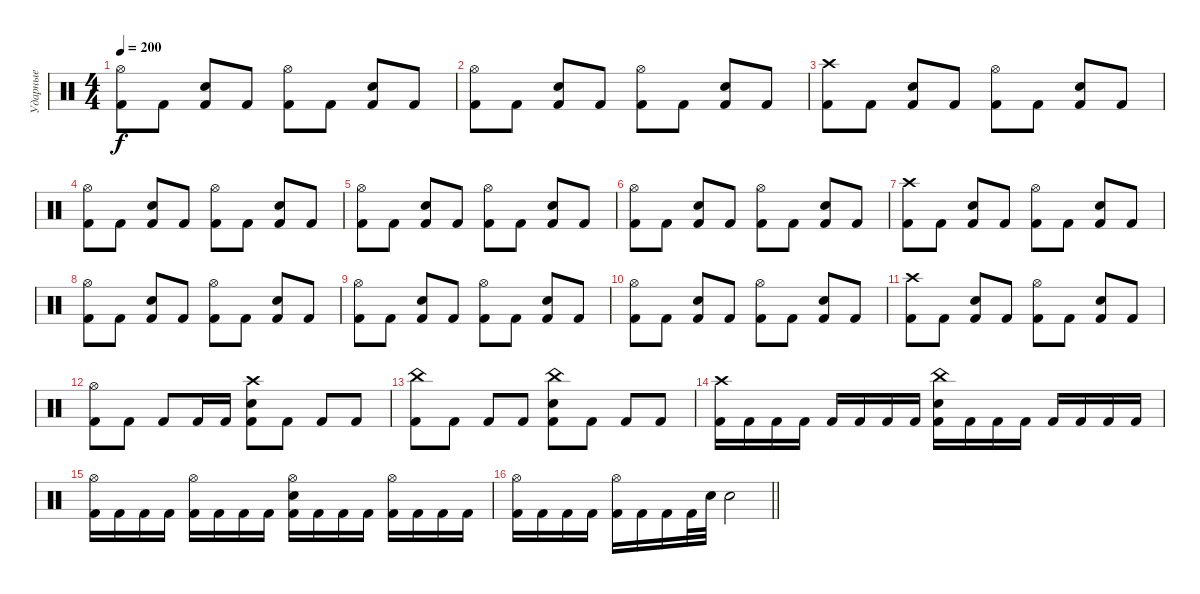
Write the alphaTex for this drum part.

\track ("Ударные" "Ударные") {instrument percussion}
\staff {score}
\articulation defaults
\ts (4 4)
\tempo 200
\clef neutral
\ks c
("Hi-Hat (open)" "Kick (hit) 2").8{dy f} "Kick (hit) 2".8 ("Snare (hit) 2" "Kick (hit) 2").8 "Kick (hit) 2".8 ("Hi-Hat (open)" "Kick (hit) 2").8 "Kick (hit) 2".8 ("Snare (hit) 2" "Kick (hit) 2").8 "Kick (hit) 2".8 |
("Hi-Hat (open)" "Kick (hit) 2").8 "Kick (hit) 2".8 ("Snare (hit) 2" "Kick (hit) 2").8 "Kick (hit) 2".8 ("Hi-Hat (open)" "Kick (hit) 2").8 "Kick (hit) 2".8 ("Snare (hit) 2" "Kick (hit) 2").8 "Kick (hit) 2".8 |
("Crash high (hit)" "Kick (hit) 2").8 "Kick (hit) 2".8 ("Snare (hit) 2" "Kick (hit) 2").8 "Kick (hit) 2".8 ("Hi-Hat (open)" "Kick (hit) 2").8 "Kick (hit) 2".8 ("Snare (hit) 2" "Kick (hit) 2").8 "Kick (hit) 2".8 |
("Hi-Hat (open)" "Kick (hit) 2").8 "Kick (hit) 2".8 ("Snare (hit) 2" "Kick (hit) 2").8 "Kick (hit) 2".8 ("Hi-Hat (open)" "Kick (hit) 2").8 "Kick (hit) 2".8 ("Snare (hit) 2" "Kick (hit) 2").8 "Kick (hit) 2".8 |
("Hi-Hat (open)" "Kick (hit) 2").8 "Kick (hit) 2".8 ("Snare (hit) 2" "Kick (hit) 2").8 "Kick (hit) 2".8 ("Hi-Hat (open)" "Kick (hit) 2").8 "Kick (hit) 2".8 ("Snare (hit) 2" "Kick (hit) 2").8 "Kick (hit) 2".8 |
("Hi-Hat (open)" "Kick (hit) 2").8 "Kick (hit) 2".8 ("Snare (hit) 2" "Kick (hit) 2").8 "Kick (hit) 2".8 ("Hi-Hat (open)" "Kick (hit) 2").8 "Kick (hit) 2".8 ("Snare (hit) 2" "Kick (hit) 2").8 "Kick (hit) 2".8 |
("Crash high (hit)" "Kick (hit) 2").8 "Kick (hit) 2".8 ("Snare (hit) 2" "Kick (hit) 2").8 "Kick (hit) 2".8 ("Hi-Hat (open)" "Kick (hit) 2").8 "Kick (hit) 2".8 ("Snare (hit) 2" "Kick (hit) 2").8 "Kick (hit) 2".8 |
("Hi-Hat (open)" "Kick (hit) 2").8 "Kick (hit) 2".8 ("Snare (hit) 2" "Kick (hit) 2").8 "Kick (hit) 2".8 ("Hi-Hat (open)" "Kick (hit) 2").8 "Kick (hit) 2".8 ("Snare (hit) 2" "Kick (hit) 2").8 "Kick (hit) 2".8 |
("Hi-Hat (open)" "Kick (hit) 2").8 "Kick (hit) 2".8 ("Snare (hit) 2" "Kick (hit) 2").8 "Kick (hit) 2".8 ("Hi-Hat (open)" "Kick (hit) 2").8 "Kick (hit) 2".8 ("Snare (hit) 2" "Kick (hit) 2").8 "Kick (hit) 2".8 |
("Hi-Hat (open)" "Kick (hit) 2").8 "Kick (hit) 2".8 ("Snare (hit) 2" "Kick (hit) 2").8 "Kick (hit) 2".8 ("Hi-Hat (open)" "Kick (hit) 2").8 "Kick (hit) 2".8 ("Snare (hit) 2" "Kick (hit) 2").8 "Kick (hit) 2".8 |
("Crash high (hit)" "Kick (hit) 2").8 "Kick (hit) 2".8 ("Snare (hit) 2" "Kick (hit) 2").8 "Kick (hit) 2".8 ("Hi-Hat (open)" "Kick (hit) 2").8 "Kick (hit) 2".8 ("Snare (hit) 2" "Kick (hit) 2").8 "Kick (hit) 2".8 |
("Hi-Hat (open)" "Kick (hit) 2").8 "Kick (hit) 2".8 "Kick (hit) 2".8 "Kick (hit) 2".16 "Kick (hit) 2".16 ("Crash high (hit)" "Snare (hit) 2" "Kick (hit) 2").8 "Kick (hit) 2".8 "Kick (hit) 2".8 "Kick (hit) 2".8 |
("China (hit)" "Kick (hit) 2").8 "Kick (hit) 2".8 "Kick (hit) 2".8 "Kick (hit) 2".8 ("China (hit)" "Snare (hit) 2" "Kick (hit) 2").8 "Kick (hit) 2".8 "Kick (hit) 2".8 "Kick (hit) 2".8 |
("Crash high (hit)" "Kick (hit) 2").16 "Kick (hit) 2".16 "Kick (hit) 2".16 "Kick (hit) 2".16 "Kick (hit) 2".16 "Kick (hit) 2".16 "Kick (hit) 2".16 "Kick (hit) 2".16 ("China (hit)" "Snare (hit) 2" "Kick (hit) 2").16 "Kick (hit) 2".16 "Kick (hit) 2".16 "Kick (hit) 2".16 "Kick (hit) 2".16 "Kick (hit) 2".16 "Kick (hit) 2".16 "Kick (hit) 2".16 |
("Hi-Hat (open)" "Kick (hit) 2").16 "Kick (hit) 2".16 "Kick (hit) 2".16 "Kick (hit) 2".16 ("Hi-Hat (open)" "Kick (hit) 2").16 "Kick (hit) 2".16 "Kick (hit) 2".16 "Kick (hit) 2".16 ("Hi-Hat (open)" "Snare (hit) 2" "Kick (hit) 2").16 "Kick (hit) 2".16 "Kick (hit) 2".16 "Kick (hit) 2".16 ("Hi-Hat (open)" "Kick (hit) 2").16 "Kick (hit) 2".16 "Kick (hit) 2".16 "Kick (hit) 2".16 |
\barLineRight lightlight
("Hi-Hat (open)" "Kick (hit) 2").16 "Kick (hit) 2".16 "Kick (hit) 2".16 "Kick (hit) 2".16 ("Hi-Hat (open)" "Kick (hit) 2").16 "Kick (hit) 2".16 "Kick (hit) 2".16 "Kick (hit) 2".32 "Snare (hit) 2".32 "Snare (hit) 2".2
